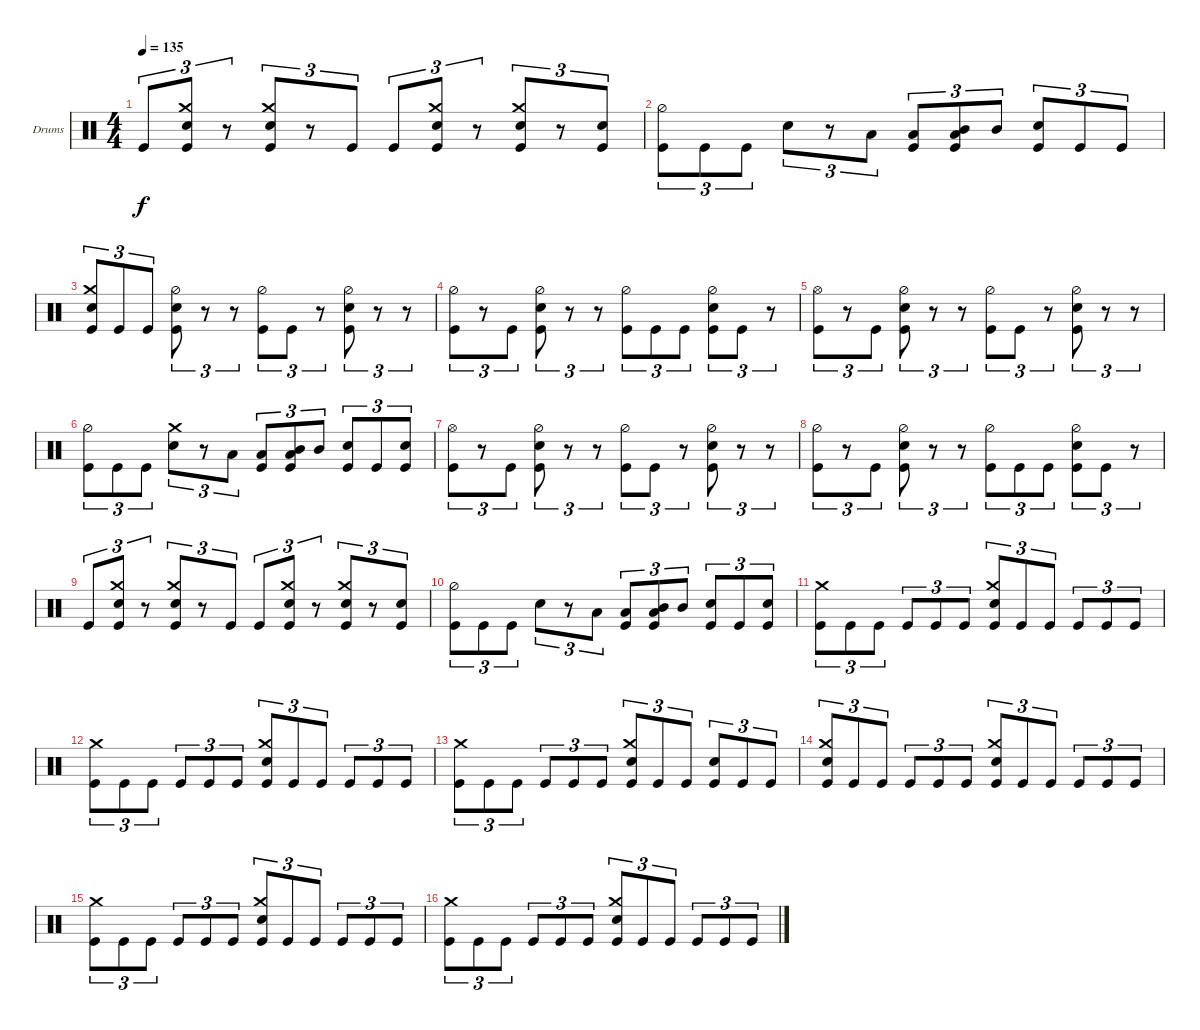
\defaultSystemsLayout 4
\bracketExtendMode groupsimilarinstruments
\firstSystemTrackNameOrientation horizontal
\otherSystemsTrackNameOrientation horizontal
\track ("Drumkit" "Drums") {instrument percussion}
\staff {score}
\articulation defaults
\ts (4 4)
\tempo 135
\clef neutral
\scale
0.333333
\ks c "Kick (hit)".8{tu (3 2) dy f}
("Kick (hit)" "Crash medium (hit)" "Snare (hit) 2").8{tu (3 2)} r.8{tu (3 2)} ("Kick (hit)" "Crash medium (hit)" "Snare (hit) 2").8{tu (3 2)} r.8{tu (3 2)} "Kick (hit)".8{tu (3 2)} "Kick (hit)".8{tu (3 2)} ("Kick (hit)" "Crash medium (hit)" "Snare (hit) 2").8{tu (3 2)} r.8{tu (3 2)} ("Kick (hit)" "Crash medium (hit)" "Snare (hit) 2").8{tu (3 2)} r.8{tu (3 2)} ("Kick (hit)" "Snare (hit) 2").8{tu (3 2)} |
\scale
0.333333 ("Kick (hit)" "Hi-Hat (half)").8{tu (3 2)} "Kick (hit)".8{tu (3 2)} "Kick (hit)".8{tu (3 2)} "Snare (hit) 2".8{tu (3 2)} r.8{tu (3 2)} "Low Tom (hit)".8{tu (3 2)} ("Kick (hit)" "Low Tom (hit)").8{tu (3 2)} ("Kick (hit)" "Low Tom (hit)" "Mid Tom (hit)").8{tu (3 2)} "Mid Tom (hit)".8{tu (3 2)} ("Kick (hit)" "Snare (hit) 2").8{tu (3 2)} "Kick (hit)".8{tu (3 2)} "Kick (hit)".8{tu (3 2)} |
\scale
0.333333 ("Snare (hit) 2" "Crash medium (hit)" "Kick (hit)").8{tu (3 2)} "Kick (hit)".8{tu (3 2)} "Kick (hit)".8{tu (3 2)} ("Kick (hit)" "Snare (hit) 2" "Hi-Hat (half)").8{tu (3 2)} r.8{tu (3 2)} r.8{tu (3 2)} ("Kick (hit)" "Hi-Hat (half)").8{tu (3 2)} "Kick (hit)".8{tu (3 2)} r.8{tu (3 2)} ("Kick (hit)" "Snare (hit) 2" "Hi-Hat (half)").8{tu (3 2)} r.8{tu (3 2)} r.8{tu (3 2)} |
\scale
0.333333 ("Kick (hit)" "Hi-Hat (half)").8{tu (3 2)} r.8{tu (3 2)} "Kick (hit)".8{tu (3 2)} ("Kick (hit)" "Snare (hit) 2" "Hi-Hat (half)").8{tu (3 2)} r.8{tu (3 2)} r.8{tu (3 2)} ("Kick (hit)" "Hi-Hat (half)").8{tu (3 2)} "Kick (hit)".8{tu (3 2)} "Kick (hit)".8{tu (3 2)} ("Kick (hit)" "Snare (hit) 2" "Hi-Hat (half)").8{tu (3 2)} "Kick (hit)".8{tu (3 2)} r.8{tu (3 2)} |
\scale
0.333333 ("Kick (hit)" "Hi-Hat (open)").8{tu (3 2)} r.8{tu (3 2)} "Kick (hit)".8{tu (3 2)} ("Kick (hit)" "Snare (hit) 2" "Hi-Hat (half)").8{tu (3 2)} r.8{tu (3 2)} r.8{tu (3 2)} ("Kick (hit)" "Hi-Hat (half)").8{tu (3 2)} "Kick (hit)".8{tu (3 2)} r.8{tu (3 2)} ("Kick (hit)" "Snare (hit) 2" "Hi-Hat (half)").8{tu (3 2)} r.8{tu (3 2)} r.8{tu (3 2)} |
\scale
0.333333 ("Kick (hit)" "Hi-Hat (half)").8{tu (3 2)} "Kick (hit)".8{tu (3 2)} "Kick (hit)".8{tu (3 2)} ("Snare (hit) 2" "Crash medium (hit)").8{tu (3 2)} r.8{tu (3 2)} "Low Tom (hit)".8{tu (3 2)} ("Kick (hit)" "Low Tom (hit)").8{tu (3 2)} ("Kick (hit)" "Low Tom (hit)" "Mid Tom (hit)").8{tu (3 2)} "Mid Tom (hit)".8{tu (3 2)} ("Kick (hit)" "Snare (hit) 2").8{tu (3 2)} "Kick (hit)".8{tu (3 2)} ("Kick (hit)" "Snare (hit) 2").8{tu (3 2)} |
\scale
0.333333 ("Kick (hit)" "Hi-Hat (open)").8{tu (3 2)} r.8{tu (3 2)} "Kick (hit)".8{tu (3 2)} ("Kick (hit)" "Snare (hit) 2" "Hi-Hat (half)").8{tu (3 2)} r.8{tu (3 2)} r.8{tu (3 2)} ("Kick (hit)" "Hi-Hat (half)").8{tu (3 2)} "Kick (hit)".8{tu (3 2)} r.8{tu (3 2)} ("Kick (hit)" "Snare (hit) 2" "Hi-Hat (half)").8{tu (3 2)} r.8{tu (3 2)} r.8{tu (3 2)} |
\scale
0.333333 ("Kick (hit)" "Hi-Hat (half)").8{tu (3 2)} r.8{tu (3 2)} "Kick (hit)".8{tu (3 2)} ("Kick (hit)" "Snare (hit) 2" "Hi-Hat (half)").8{tu (3 2)} r.8{tu (3 2)} r.8{tu (3 2)} ("Kick (hit)" "Hi-Hat (half)").8{tu (3 2)} "Kick (hit)".8{tu (3 2)} "Kick (hit)".8{tu (3 2)} ("Kick (hit)" "Snare (hit) 2" "Hi-Hat (half)").8{tu (3 2)} "Kick (hit)".8{tu (3 2)} r.8{tu (3 2)} |
\scale
0.333333 "Kick (hit)".8{tu (3 2)} ("Kick (hit)" "Crash medium (hit)" "Snare (hit) 2").8{tu (3 2)} r.8{tu (3 2)} ("Kick (hit)" "Crash medium (hit)" "Snare (hit) 2").8{tu (3 2)} r.8{tu (3 2)} "Kick (hit)".8{tu (3 2)} "Kick (hit)".8{tu (3 2)} ("Kick (hit)" "Crash medium (hit)" "Snare (hit) 2").8{tu (3 2)} r.8{tu (3 2)} ("Kick (hit)" "Crash medium (hit)" "Snare (hit) 2").8{tu (3 2)} r.8{tu (3 2)} ("Kick (hit)" "Snare (hit) 2").8{tu (3 2)} |
\scale
0.333333 ("Kick (hit)" "Hi-Hat (half)").8{tu (3 2)} "Kick (hit)".8{tu (3 2)} "Kick (hit)".8{tu (3 2)} "Snare (hit) 2".8{tu (3 2)} r.8{tu (3 2)} "Low Tom (hit)".8{tu (3 2)} ("Kick (hit)" "Low Tom (hit)").8{tu (3 2)} ("Kick (hit)" "Low Tom (hit)" "Mid Tom (hit)").8{tu (3 2)} "Mid Tom (hit)".8{tu (3 2)} ("Kick (hit)" "Snare (hit) 2").8{tu (3 2)} "Kick (hit)".8{tu (3 2)} ("Kick (hit)" "Snare (hit) 2").8{tu (3 2)} |
\scale
0.333333 ("Kick (hit)" "Crash medium (hit)").8{tu (3 2)} "Kick (hit)".8{tu (3 2)} "Kick (hit)".8{tu (3 2)} "Kick (hit)".8{tu (3 2)} "Kick (hit)".8{tu (3 2)} "Kick (hit)".8{tu (3 2)} ("Kick (hit)" "Crash medium (hit)" "Snare (hit) 2").8{tu (3 2)} "Kick (hit)".8{tu (3 2)} "Kick (hit)".8{tu (3 2)} "Kick (hit)".8{tu (3 2)} "Kick (hit)".8{tu (3 2)} "Kick (hit)".8{tu (3 2)} |
\scale
0.333333 ("Kick (hit)" "Crash medium (hit)").8{tu (3 2)} "Kick (hit)".8{tu (3 2)} "Kick (hit)".8{tu (3 2)} "Kick (hit)".8{tu (3 2)} "Kick (hit)".8{tu (3 2)} "Kick (hit)".8{tu (3 2)} ("Kick (hit)" "Crash medium (hit)" "Snare (hit) 2").8{tu (3 2)} "Kick (hit)".8{tu (3 2)} "Kick (hit)".8{tu (3 2)} "Kick (hit)".8{tu (3 2)} "Kick (hit)".8{tu (3 2)} "Kick (hit)".8{tu (3 2)} |
\scale
0.333333 ("Kick (hit)" "Crash medium (hit)").8{tu (3 2)} "Kick (hit)".8{tu (3 2)} "Kick (hit)".8{tu (3 2)} "Kick (hit)".8{tu (3 2)} "Kick (hit)".8{tu (3 2)} "Kick (hit)".8{tu (3 2)} ("Kick (hit)" "Crash medium (hit)" "Snare (hit) 2").8{tu (3 2)} "Kick (hit)".8{tu (3 2)} "Kick (hit)".8{tu (3 2)} ("Kick (hit)" "Snare (hit) 2").8{tu (3 2)} "Kick (hit)".8{tu (3 2)} "Kick (hit)".8{tu (3 2)} |
\scale
0.333333 ("Kick (hit)" "Crash medium (hit)" "Snare (hit) 2").8{tu (3 2)} "Kick (hit)".8{tu (3 2)} "Kick (hit)".8{tu (3 2)} "Kick (hit)".8{tu (3 2)} "Kick (hit)".8{tu (3 2)} "Kick (hit)".8{tu (3 2)} ("Kick (hit)" "Crash medium (hit)" "Snare (hit) 2").8{tu (3 2)} "Kick (hit)".8{tu (3 2)} "Kick (hit)".8{tu (3 2)} "Kick (hit)".8{tu (3 2)} "Kick (hit)".8{tu (3 2)} "Kick (hit)".8{tu (3 2)} |
\scale
0.333333 ("Kick (hit)" "Crash medium (hit)").8{tu (3 2)} "Kick (hit)".8{tu (3 2)} "Kick (hit)".8{tu (3 2)} "Kick (hit)".8{tu (3 2)} "Kick (hit)".8{tu (3 2)} "Kick (hit)".8{tu (3 2)} ("Kick (hit)" "Crash medium (hit)" "Snare (hit) 2").8{tu (3 2)} "Kick (hit)".8{tu (3 2)} "Kick (hit)".8{tu (3 2)} "Kick (hit)".8{tu (3 2)} "Kick (hit)".8{tu (3 2)} "Kick (hit)".8{tu (3 2)} |
\scale
0.333333 ("Kick (hit)" "Crash medium (hit)").8{tu (3 2)} "Kick (hit)".8{tu (3 2)} "Kick (hit)".8{tu (3 2)} "Kick (hit)".8{tu (3 2)} "Kick (hit)".8{tu (3 2)} "Kick (hit)".8{tu (3 2)} ("Kick (hit)" "Crash medium (hit)" "Snare (hit) 2").8{tu (3 2)} "Kick (hit)".8{tu (3 2)} "Kick (hit)".8{tu (3 2)} "Kick (hit)".8{tu (3 2)} "Kick (hit)".8{tu (3 2)} "Kick (hit)".8{tu (3 2)}
